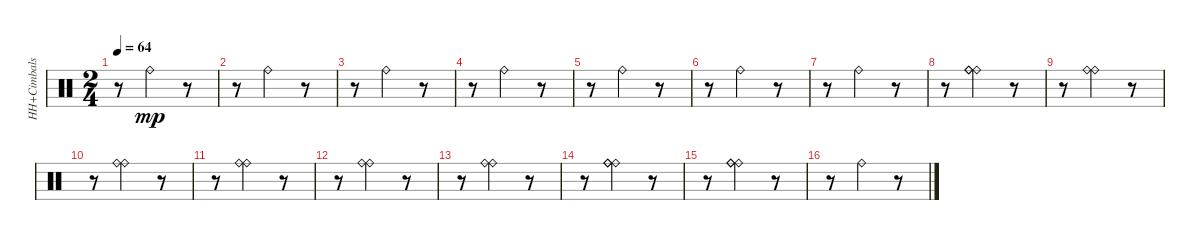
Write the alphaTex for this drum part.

\track ("HH+Cimbals" "HH+Cimbals") {instrument percussion}
\staff {score}
\articulation defaults
\ts (2 4)
\tempo 64
\clef neutral
\ks c
r.8{dy mp} "Ride (bell)".4 r.8 |
r.8 "Ride (bell)".4 r.8 |
r.8 "Ride (bell)".4 r.8 |
r.8 "Ride (bell)".4 r.8 |
r.8 "Ride (bell)".4 r.8 |
r.8 "Ride (bell)".4 r.8 |
r.8 "Ride (bell)".4 r.8 |
r.8 ("Ride (bell)" "Ride (bell)" "Ride (bell)").4 r.8 |
r.8 ("Ride (bell)" "Ride (bell)").4 r.8 |
r.8 ("Ride (bell)" "Ride (bell)").4 r.8 |
r.8 ("Ride (bell)" "Ride (bell)").4 r.8 |
r.8 ("Ride (bell)" "Ride (bell)").4 r.8 |
r.8 ("Ride (bell)" "Ride (bell)").4 r.8 |
r.8 ("Ride (bell)" "Ride (bell)" "Ride (bell)").4 r.8 |
r.8 ("Ride (bell)" "Ride (bell)" "Ride (bell)").4 r.8 |
r.8 "Ride (bell)".4 r.8
